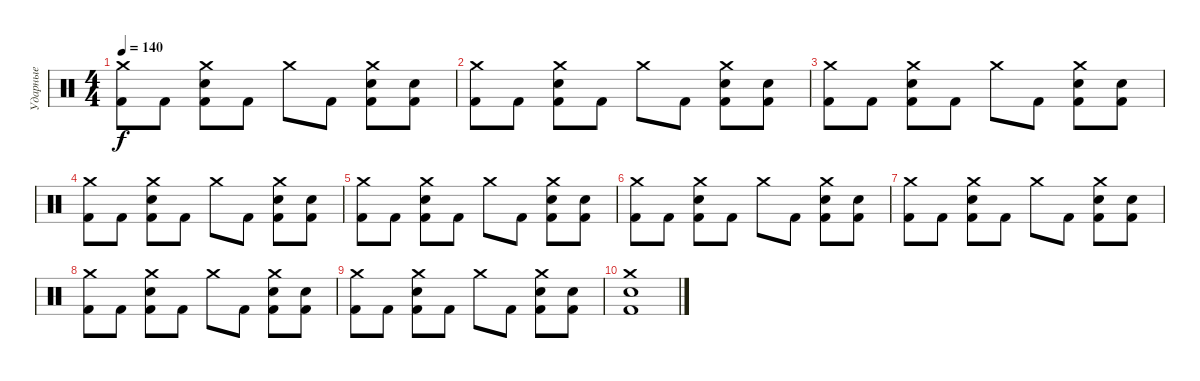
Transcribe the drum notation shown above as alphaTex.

\track ("Ударные" "Ударные") {instrument percussion}
\staff {score}
\articulation defaults
\ts (4 4)
\tempo 140
\clef neutral
\ks c
("Crash medium (hit)" "Kick (hit) 2").8{dy f} "Kick (hit) 2".8 ("Crash medium (hit)" "Kick (hit) 2" "Snare (hit) 2").8 "Kick (hit) 2".8 "Crash medium (hit)".8 "Kick (hit) 2".8 ("Crash medium (hit)" "Snare (hit) 2" "Kick (hit) 2").8 ("Snare (hit) 2" "Kick (hit) 2").8 |
("Crash medium (hit)" "Kick (hit) 2").8 "Kick (hit) 2".8 ("Crash medium (hit)" "Kick (hit) 2" "Snare (hit) 2").8 "Kick (hit) 2".8 "Crash medium (hit)".8 "Kick (hit) 2".8 ("Crash medium (hit)" "Snare (hit) 2" "Kick (hit) 2").8 ("Snare (hit) 2" "Kick (hit) 2").8 |
("Crash medium (hit)" "Kick (hit) 2").8 "Kick (hit) 2".8 ("Crash medium (hit)" "Kick (hit) 2" "Snare (hit) 2").8 "Kick (hit) 2".8 "Crash medium (hit)".8 "Kick (hit) 2".8 ("Crash medium (hit)" "Snare (hit) 2" "Kick (hit) 2").8 ("Snare (hit) 2" "Kick (hit) 2").8 |
("Crash medium (hit)" "Kick (hit) 2").8 "Kick (hit) 2".8 ("Crash medium (hit)" "Kick (hit) 2" "Snare (hit) 2").8 "Kick (hit) 2".8 "Crash medium (hit)".8 "Kick (hit) 2".8 ("Crash medium (hit)" "Snare (hit) 2" "Kick (hit) 2").8 ("Snare (hit) 2" "Kick (hit) 2").8 |
("Crash medium (hit)" "Kick (hit) 2").8 "Kick (hit) 2".8 ("Crash medium (hit)" "Kick (hit) 2" "Snare (hit) 2").8 "Kick (hit) 2".8 "Crash medium (hit)".8 "Kick (hit) 2".8 ("Crash medium (hit)" "Snare (hit) 2" "Kick (hit) 2").8 ("Snare (hit) 2" "Kick (hit) 2").8 |
("Crash medium (hit)" "Kick (hit) 2").8 "Kick (hit) 2".8 ("Crash medium (hit)" "Kick (hit) 2" "Snare (hit) 2").8 "Kick (hit) 2".8 "Crash medium (hit)".8 "Kick (hit) 2".8 ("Crash medium (hit)" "Snare (hit) 2" "Kick (hit) 2").8 ("Snare (hit) 2" "Kick (hit) 2").8 |
("Crash medium (hit)" "Kick (hit) 2").8 "Kick (hit) 2".8 ("Crash medium (hit)" "Kick (hit) 2" "Snare (hit) 2").8 "Kick (hit) 2".8 "Crash medium (hit)".8 "Kick (hit) 2".8 ("Crash medium (hit)" "Snare (hit) 2" "Kick (hit) 2").8 ("Snare (hit) 2" "Kick (hit) 2").8 |
("Crash medium (hit)" "Kick (hit) 2").8 "Kick (hit) 2".8 ("Crash medium (hit)" "Kick (hit) 2" "Snare (hit) 2").8 "Kick (hit) 2".8 "Crash medium (hit)".8 "Kick (hit) 2".8 ("Crash medium (hit)" "Snare (hit) 2" "Kick (hit) 2").8 ("Snare (hit) 2" "Kick (hit) 2").8 |
("Crash medium (hit)" "Kick (hit) 2").8 "Kick (hit) 2".8 ("Crash medium (hit)" "Kick (hit) 2" "Snare (hit) 2").8 "Kick (hit) 2".8 "Crash medium (hit)".8 "Kick (hit) 2".8 ("Crash medium (hit)" "Snare (hit) 2" "Kick (hit) 2").8 ("Snare (hit) 2" "Kick (hit) 2").8 |
("Snare (hit) 2" "Kick (hit) 2" "Crash medium (hit)").1
